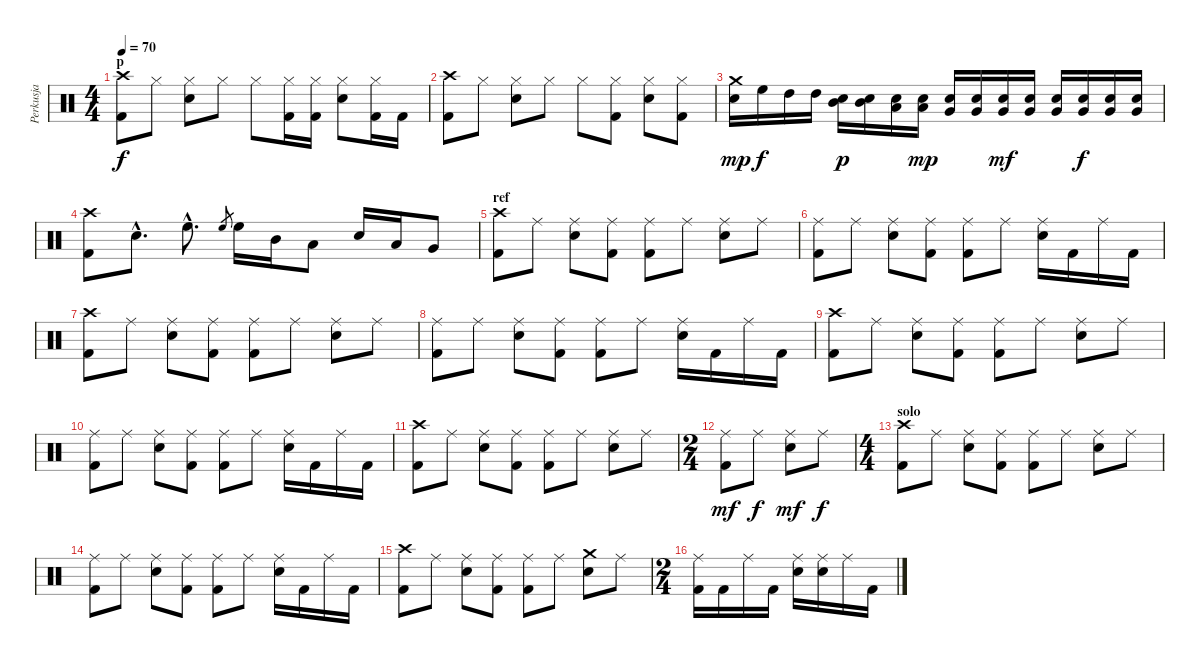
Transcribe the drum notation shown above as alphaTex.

\track ("Perkusja" "Perkusja") {instrument percussion}
\staff {score}
\articulation defaults
\ts (4 4)
\section ("" "p")
\tempo 70
\clef neutral
\ks c
("Crash high (hit)" "Kick (hit) 2").8{dy f} "Hi-Hat (closed)".8 ("Hi-Hat (closed)" "Snare (hit) 2").8 "Hi-Hat (closed)".8 "Hi-Hat (closed)".8 ("Hi-Hat (closed)" "Kick (hit) 2").16 ("Hi-Hat (closed)" "Kick (hit) 2").16 ("Hi-Hat (closed)" "Snare (hit) 2").8 ("Hi-Hat (closed)" "Kick (hit) 2").16 "Kick (hit) 2".16 |
("Crash high (hit)" "Kick (hit) 2").8 "Hi-Hat (closed)".8 ("Hi-Hat (closed)" "Snare (hit) 2").8 "Hi-Hat (closed)".8 "Hi-Hat (closed)".8 ("Hi-Hat (closed)" "Kick (hit) 2").8 ("Hi-Hat (closed)" "Snare (hit) 2").8 ("Hi-Hat (closed)" "Kick (hit) 2").8 |
("Crash medium (hit)" "Snare (hit) 2").16{dy mp} "High Floor Tom (hit)".16{dy f} "High Tom (hit)".16 "High Tom (hit)".16 ("Snare (hit) 2" "Mid Tom (hit)").16{dy p} ("Snare (hit) 2" "Mid Tom (hit)").16 ("Snare (hit) 2" "Low Tom (hit)").16 ("Snare (hit) 2" "Low Tom (hit)").16{dy mp} ("Snare (hit) 2" "Very Low Tom (hit)").16 ("Snare (hit) 2" "Very Low Tom (hit)").16 ("Snare (hit) 2" "Very Low Tom (hit)").16{dy mf} ("Snare (hit) 2" "Very Low Tom (hit)").16 ("Snare (hit) 2" "Very Low Tom (hit)").16 ("Snare (hit) 2" "Very Low Tom (hit)").16{dy f} ("Snare (hit) 2" "Very Low Tom (hit)").16 ("Snare (hit) 2" "Very Low Tom (hit)").16 |
("Crash high (hit)" "Kick (hit) 2").8 "Snare (hit) 2"{hac}.8{d} "High Floor Tom (hit)"{hac}.8{d} "High Floor Tom (hit)".8{gr} "High Floor Tom (hit)".16 "Mid Tom (hit)".16 "Low Tom (hit)".8 "Snare (hit) 2".16 "Low Tom (hit)".16 "Very Low Tom (hit)".8 |
\section ("" "ref")
("Crash high (hit)" "Kick (hit) 2").8 "Ride (middle)".8 ("Ride (middle)" "Snare (hit) 2").8 ("Ride (middle)" "Kick (hit) 2").8 ("Ride (middle)" "Kick (hit) 2").8 "Ride (middle)".8 ("Ride (middle)" "Snare (hit) 2").8 "Ride (middle)".8 |
("Ride (middle)" "Kick (hit) 2").8 "Ride (middle)".8 ("Ride (middle)" "Snare (hit) 2").8 ("Ride (middle)" "Kick (hit) 2").8 ("Ride (middle)" "Kick (hit) 2").8 "Ride (middle)".8 ("Ride (middle)" "Snare (hit) 2").16 "Kick (hit) 2".16 "Ride (middle)".16 "Kick (hit) 2".16 |
("Crash high (hit)" "Kick (hit) 2").8 "Ride (middle)".8 ("Ride (middle)" "Snare (hit) 2").8 ("Ride (middle)" "Kick (hit) 2").8 ("Ride (middle)" "Kick (hit) 2").8 "Ride (middle)".8 ("Ride (middle)" "Snare (hit) 2").8 "Ride (middle)".8 |
("Ride (middle)" "Kick (hit) 2").8 "Ride (middle)".8 ("Ride (middle)" "Snare (hit) 2").8 ("Ride (middle)" "Kick (hit) 2").8 ("Ride (middle)" "Kick (hit) 2").8 "Ride (middle)".8 ("Ride (middle)" "Snare (hit) 2").16 "Kick (hit) 2".16 "Ride (middle)".16 "Kick (hit) 2".16 |
("Crash high (hit)" "Kick (hit) 2").8 "Ride (middle)".8 ("Ride (middle)" "Snare (hit) 2").8 ("Ride (middle)" "Kick (hit) 2").8 ("Ride (middle)" "Kick (hit) 2").8 "Ride (middle)".8 ("Ride (middle)" "Snare (hit) 2").8 "Ride (middle)".8 |
("Ride (middle)" "Kick (hit) 2").8 "Ride (middle)".8 ("Ride (middle)" "Snare (hit) 2").8 ("Ride (middle)" "Kick (hit) 2").8 ("Ride (middle)" "Kick (hit) 2").8 "Ride (middle)".8 ("Ride (middle)" "Snare (hit) 2").16 "Kick (hit) 2".16 "Ride (middle)".16 "Kick (hit) 2".16 |
("Crash high (hit)" "Kick (hit) 2").8 "Ride (middle)".8 ("Ride (middle)" "Snare (hit) 2").8 ("Ride (middle)" "Kick (hit) 2").8 ("Ride (middle)" "Kick (hit) 2").8 "Ride (middle)".8 ("Ride (middle)" "Snare (hit) 2").8 "Ride (middle)".8 |
\ts (2 4)
("Ride (middle)" "Kick (hit) 2").8{dy mf} "Ride (middle)".8{dy f} ("Ride (middle)" "Snare (hit) 2").8{dy mf} "Ride (middle)".8{dy f} |
\ts (4 4)
\section ("" "solo")
("Crash high (hit)" "Kick (hit) 2").8 "Ride (middle)".8 ("Ride (middle)" "Snare (hit) 2").8 ("Ride (middle)" "Kick (hit) 2").8 ("Ride (middle)" "Kick (hit) 2").8 "Ride (middle)".8 ("Ride (middle)" "Snare (hit) 2").8 "Ride (middle)".8 |
("Ride (middle)" "Kick (hit) 2").8 "Ride (middle)".8 ("Ride (middle)" "Snare (hit) 2").8 ("Ride (middle)" "Kick (hit) 2").8 ("Ride (middle)" "Kick (hit) 2").8 "Ride (middle)".8 ("Ride (middle)" "Snare (hit) 2").16 "Kick (hit) 2".16 "Ride (middle)".16 "Kick (hit) 2".16 |
("Crash high (hit)" "Kick (hit) 2").8 "Ride (middle)".8 ("Ride (middle)" "Snare (hit) 2").8 ("Ride (middle)" "Kick (hit) 2").8 ("Ride (middle)" "Kick (hit) 2").8 "Ride (middle)".8 ("Crash medium (hit)" "Snare (hit) 2").8 "Ride (middle)".8 |
\ts (2 4)
("Ride (middle)" "Kick (hit) 2").16 "Kick (hit) 2".16 "Ride (middle)".16 "Kick (hit) 2".16 ("Ride (middle)" "Snare (hit) 2").16 ("Ride (middle)" "Snare (hit) 2").16 "Ride (middle)".16 "Kick (hit) 2".16
